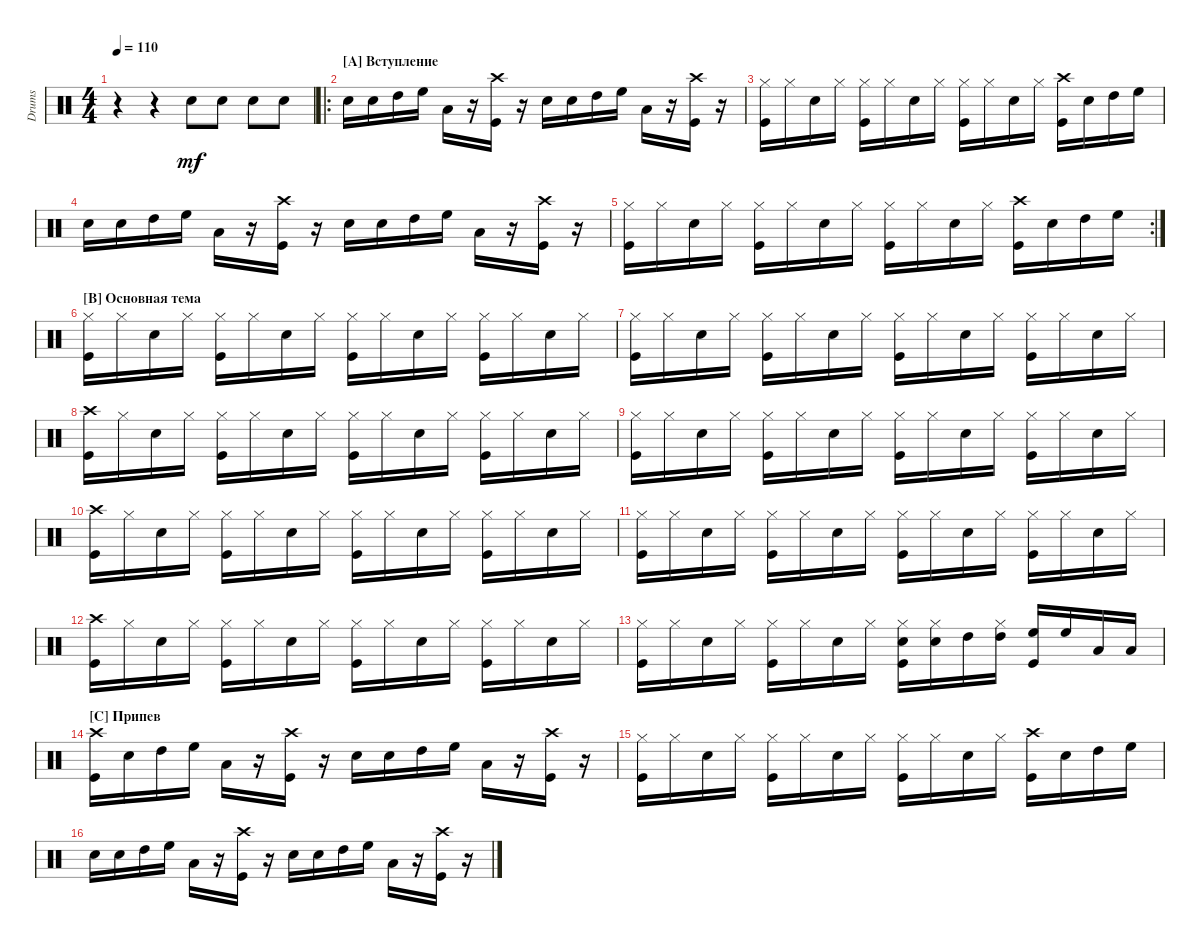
\track ("Drumkit" "Drums") {instrument percussion}
\staff {score}
\articulation defaults
\ts (4 4)
\tempo 110
\clef neutral
\scale
0.447368
\ks c
r.4{dy mf} r.4 "Snare (hit) 2".8 "Snare (hit) 2".8 "Snare (hit) 2".8 "Snare (hit) 2".8 |
\ro
\section ("A" "Вступление")
\scale
0.302632 "Snare (hit) 2".16 "Snare (hit) 2".16 "High Tom (hit)".16 "High Floor Tom (hit)".16 "Low Tom (hit)".16 r.16 ("Crash high (hit)" "Kick (hit)").16 r.16 "Snare (hit) 2".16 "Snare (hit) 2".16 "High Tom (hit)".16 "High Floor Tom (hit)".16 "Low Tom (hit)".16 r.16 ("Crash high (hit)" "Kick (hit)").16 r.16 |
\scale
0.25 ("Kick (hit)" "Hi-Hat (closed)").16 "Hi-Hat (closed)".16 "Snare (hit) 2".16 "Hi-Hat (closed)".16 ("Kick (hit)" "Hi-Hat (closed)").16 "Hi-Hat (closed)".16 "Snare (hit) 2".16 "Hi-Hat (closed)".16 ("Kick (hit)" "Hi-Hat (closed)").16 "Hi-Hat (closed)".16 "Snare (hit) 2".16 "Hi-Hat (closed)".16 ("Kick (hit)" "Crash high (hit)").16 "Snare (hit) 2".16 "High Tom (hit)".16 "High Floor Tom (hit)".16 |
\scale
0.322034 "Snare (hit) 2".16 "Snare (hit) 2".16 "High Tom (hit)".16 "High Floor Tom (hit)".16 "Low Tom (hit)".16 r.16 ("Crash high (hit)" "Kick (hit)").16 r.16 "Snare (hit) 2".16 "Snare (hit) 2".16 "High Tom (hit)".16 "High Floor Tom (hit)".16 "Low Tom (hit)".16 r.16 ("Crash high (hit)" "Kick (hit)").16 r.16 |
\rc 2
\scale
0.355932 ("Kick (hit)" "Hi-Hat (closed)").16 "Hi-Hat (closed)".16 "Snare (hit) 2".16 "Hi-Hat (closed)".16 ("Kick (hit)" "Hi-Hat (closed)").16 "Hi-Hat (closed)".16 "Snare (hit) 2".16 "Hi-Hat (closed)".16 ("Kick (hit)" "Hi-Hat (closed)").16 "Hi-Hat (closed)".16 "Snare (hit) 2".16 "Hi-Hat (closed)".16 ("Kick (hit)" "Crash high (hit)").16 "Snare (hit) 2".16 "High Tom (hit)".16 "High Floor Tom (hit)".16 |
\section ("B" "Основная тема")
\scale
0.322034 ("Kick (hit)" "Hi-Hat (closed)").16 "Hi-Hat (closed)".16 "Snare (hit) 2".16 "Hi-Hat (closed)".16 ("Kick (hit)" "Hi-Hat (closed)").16 "Hi-Hat (closed)".16 "Snare (hit) 2".16 "Hi-Hat (closed)".16 ("Kick (hit)" "Hi-Hat (closed)").16 "Hi-Hat (closed)".16 "Snare (hit) 2".16 "Hi-Hat (closed)".16 ("Kick (hit)" "Hi-Hat (closed)").16 "Hi-Hat (closed)".16 "Snare (hit) 2".16 "Hi-Hat (closed)".16 |
\scale
0.333333 ("Kick (hit)" "Hi-Hat (closed)").16 "Hi-Hat (closed)".16 "Snare (hit) 2".16 "Hi-Hat (closed)".16 ("Kick (hit)" "Hi-Hat (closed)").16 "Hi-Hat (closed)".16 "Snare (hit) 2".16 "Hi-Hat (closed)".16 ("Kick (hit)" "Hi-Hat (closed)").16 "Hi-Hat (closed)".16 "Snare (hit) 2".16 "Hi-Hat (closed)".16 ("Kick (hit)" "Hi-Hat (closed)").16 "Hi-Hat (closed)".16 "Snare (hit) 2".16 "Hi-Hat (closed)".16 |
\scale
0.333333 ("Kick (hit)" "Crash high (hit)").16 "Hi-Hat (closed)".16 "Snare (hit) 2".16 "Hi-Hat (closed)".16 ("Kick (hit)" "Hi-Hat (closed)").16 "Hi-Hat (closed)".16 "Snare (hit) 2".16 "Hi-Hat (closed)".16 ("Kick (hit)" "Hi-Hat (closed)").16 "Hi-Hat (closed)".16 "Snare (hit) 2".16 "Hi-Hat (closed)".16 ("Kick (hit)" "Hi-Hat (closed)").16 "Hi-Hat (closed)".16 "Snare (hit) 2".16 "Hi-Hat (closed)".16 |
\scale
0.333333 ("Kick (hit)" "Hi-Hat (closed)").16 "Hi-Hat (closed)".16 "Snare (hit) 2".16 "Hi-Hat (closed)".16 ("Kick (hit)" "Hi-Hat (closed)").16 "Hi-Hat (closed)".16 "Snare (hit) 2".16 "Hi-Hat (closed)".16 ("Kick (hit)" "Hi-Hat (closed)").16 "Hi-Hat (closed)".16 "Snare (hit) 2".16 "Hi-Hat (closed)".16 ("Kick (hit)" "Hi-Hat (closed)").16 "Hi-Hat (closed)".16 "Snare (hit) 2".16 "Hi-Hat (closed)".16 |
\scale
0.333333 ("Kick (hit)" "Crash high (hit)").16 "Hi-Hat (closed)".16 "Snare (hit) 2".16 "Hi-Hat (closed)".16 ("Kick (hit)" "Hi-Hat (closed)").16 "Hi-Hat (closed)".16 "Snare (hit) 2".16 "Hi-Hat (closed)".16 ("Kick (hit)" "Hi-Hat (closed)").16 "Hi-Hat (closed)".16 "Snare (hit) 2".16 "Hi-Hat (closed)".16 ("Kick (hit)" "Hi-Hat (closed)").16 "Hi-Hat (closed)".16 "Snare (hit) 2".16 "Hi-Hat (closed)".16 |
\scale
0.333333 ("Kick (hit)" "Hi-Hat (closed)").16 "Hi-Hat (closed)".16 "Snare (hit) 2".16 "Hi-Hat (closed)".16 ("Kick (hit)" "Hi-Hat (closed)").16 "Hi-Hat (closed)".16 "Snare (hit) 2".16 "Hi-Hat (closed)".16 ("Kick (hit)" "Hi-Hat (closed)").16 "Hi-Hat (closed)".16 "Snare (hit) 2".16 "Hi-Hat (closed)".16 ("Kick (hit)" "Hi-Hat (closed)").16 "Hi-Hat (closed)".16 "Snare (hit) 2".16 "Hi-Hat (closed)".16 |
\scale
0.333333 ("Kick (hit)" "Crash high (hit)").16 "Hi-Hat (closed)".16 "Snare (hit) 2".16 "Hi-Hat (closed)".16 ("Kick (hit)" "Hi-Hat (closed)").16 "Hi-Hat (closed)".16 "Snare (hit) 2".16 "Hi-Hat (closed)".16 ("Kick (hit)" "Hi-Hat (closed)").16 "Hi-Hat (closed)".16 "Snare (hit) 2".16 "Hi-Hat (closed)".16 ("Kick (hit)" "Hi-Hat (closed)").16 "Hi-Hat (closed)".16 "Snare (hit) 2".16 "Hi-Hat (closed)".16 |
\scale
0.333333 ("Kick (hit)" "Hi-Hat (closed)").16 "Hi-Hat (closed)".16 "Snare (hit) 2".16 "Hi-Hat (closed)".16 ("Kick (hit)" "Hi-Hat (closed)").16 "Hi-Hat (closed)".16 "Snare (hit) 2".16 "Hi-Hat (closed)".16 ("Kick (hit)" "Hi-Hat (closed)" "Snare (hit) 2").16 ("Hi-Hat (closed)" "Snare (hit) 2").16 "High Tom (hit)".16 ("Hi-Hat (closed)" "High Tom (hit)").16 ("Kick (hit)" "High Floor Tom (hit)").16 "High Floor Tom (hit)".16 "Low Tom (hit)".16 "Low Tom (hit)".16 |
\section ("C" "Припев")
\scale
0.333333 ("Crash high (hit)" "Kick (hit)").16 "Snare (hit) 2".16 "High Tom (hit)".16 "High Floor Tom (hit)".16 "Low Tom (hit)".16 r.16 ("Crash high (hit)" "Kick (hit)").16 r.16 "Snare (hit) 2".16 "Snare (hit) 2".16 "High Tom (hit)".16 "High Floor Tom (hit)".16 "Low Tom (hit)".16 r.16 ("Crash high (hit)" "Kick (hit)").16 r.16 |
\scale
0.333333 ("Kick (hit)" "Hi-Hat (closed)").16 "Hi-Hat (closed)".16 "Snare (hit) 2".16 "Hi-Hat (closed)".16 ("Kick (hit)" "Hi-Hat (closed)").16 "Hi-Hat (closed)".16 "Snare (hit) 2".16 "Hi-Hat (closed)".16 ("Kick (hit)" "Hi-Hat (closed)").16 "Hi-Hat (closed)".16 "Snare (hit) 2".16 "Hi-Hat (closed)".16 ("Kick (hit)" "Crash high (hit)").16 "Snare (hit) 2".16 "High Tom (hit)".16 "High Floor Tom (hit)".16 |
\scale
0.333333 "Snare (hit) 2".16 "Snare (hit) 2".16 "High Tom (hit)".16 "High Floor Tom (hit)".16 "Low Tom (hit)".16 r.16 ("Crash high (hit)" "Kick (hit)").16 r.16 "Snare (hit) 2".16 "Snare (hit) 2".16 "High Tom (hit)".16 "High Floor Tom (hit)".16 "Low Tom (hit)".16 r.16 ("Crash high (hit)" "Kick (hit)").16 r.16
